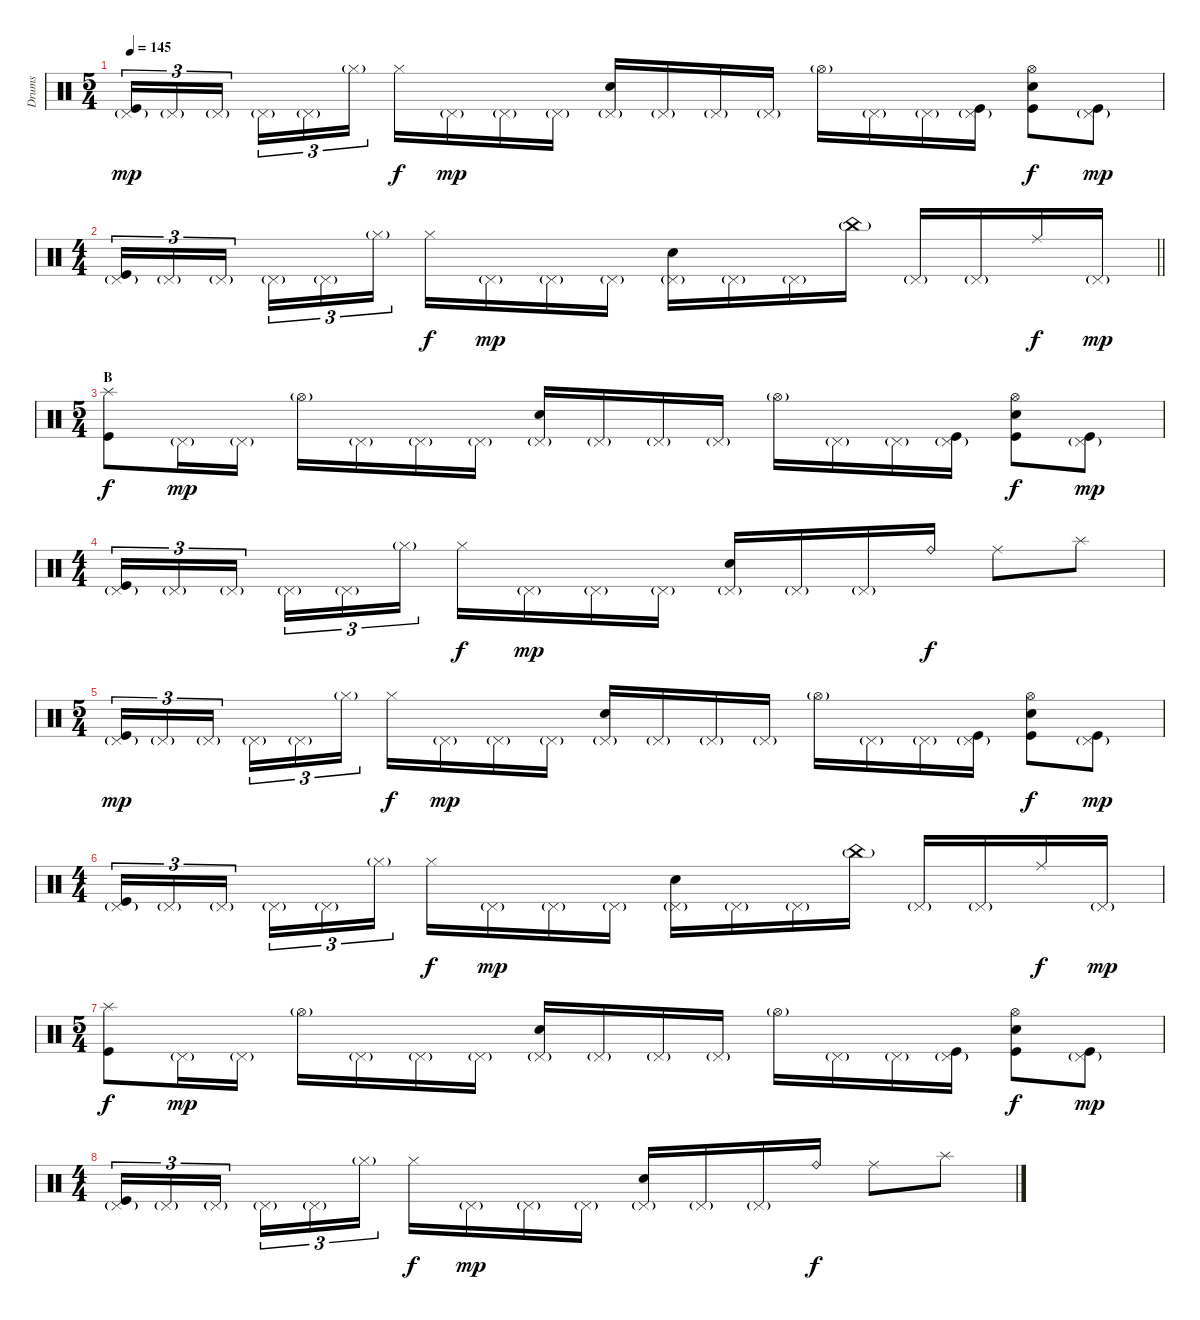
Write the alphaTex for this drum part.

\track ("Drums" "Drums") {instrument percussion}
\staff {score}
\articulation defaults
\ts (5 4)
\tempo 145
\clef neutral
\ks c
("Pedal Hi-Hat (hit)"{g} "Kick (hit)").16{tu (3 2) dy mp} "Pedal Hi-Hat (hit)"{g}.16{tu (3 2)} "Pedal Hi-Hat (hit)"{g}.16{tu (3 2)} "Pedal Hi-Hat (hit)"{g}.16{tu (3 2)} "Pedal Hi-Hat (hit)"{g}.16{tu (3 2)} "Hi-Hat (closed)"{g}.16{tu (3 2)} "Hi-Hat (closed)".16{dy f} "Pedal Hi-Hat (hit)"{g}.16{dy mp} "Pedal Hi-Hat (hit)"{g}.16 "Pedal Hi-Hat (hit)"{g}.16 ("Pedal Hi-Hat (hit)"{g} "Electric Snare (hit)").16 "Pedal Hi-Hat (hit)"{g}.16 "Pedal Hi-Hat (hit)"{g}.16 "Pedal Hi-Hat (hit)"{g}.16 "Hi-Hat (open)"{g}.16 "Pedal Hi-Hat (hit)"{g}.16 "Pedal Hi-Hat (hit)"{g}.16 ("Pedal Hi-Hat (hit)"{g} "Kick (hit)").16 ("Hi-Hat (open)" "Electric Snare (hit)" "Kick (hit)").8{dy f} ("Pedal Hi-Hat (hit)"{g} "Kick (hit)").8{dy mp} |
\ts (4 4)
\barLineRight lightlight
("Pedal Hi-Hat (hit)"{g} "Kick (hit)").16{tu (3 2)} "Pedal Hi-Hat (hit)"{g}.16{tu (3 2)} "Pedal Hi-Hat (hit)"{g}.16{tu (3 2)} "Pedal Hi-Hat (hit)"{g}.16{tu (3 2)} "Pedal Hi-Hat (hit)"{g}.16{tu (3 2)} "Hi-Hat (closed)"{g}.16{tu (3 2)} "Hi-Hat (closed)".16{dy f} "Pedal Hi-Hat (hit)"{g}.16{dy mp} "Pedal Hi-Hat (hit)"{g}.16 "Pedal Hi-Hat (hit)"{g}.16 ("Pedal Hi-Hat (hit)"{g} "Electric Snare (hit)").16 "Pedal Hi-Hat (hit)"{g}.16 "Pedal Hi-Hat (hit)"{g}.16 "China (hit)"{g}.16 "Pedal Hi-Hat (hit)"{g}.16 "Pedal Hi-Hat (hit)"{g}.16 "Ride (middle)".16{dy f} "Pedal Hi-Hat (hit)"{g}.16{dy mp} |
\ts (5 4)
\section ("" "B")
("Splash (hit)" "Kick (hit)").8{dy f} "Pedal Hi-Hat (hit)"{g}.16{dy mp} "Pedal Hi-Hat (hit)"{g}.16 "Hi-Hat (open)"{g}.16 "Pedal Hi-Hat (hit)"{g}.16 "Pedal Hi-Hat (hit)"{g}.16 "Pedal Hi-Hat (hit)"{g}.16 ("Pedal Hi-Hat (hit)"{g} "Electric Snare (hit)").16 "Pedal Hi-Hat (hit)"{g}.16 "Pedal Hi-Hat (hit)"{g}.16 "Pedal Hi-Hat (hit)"{g}.16 "Hi-Hat (open)"{g}.16 "Pedal Hi-Hat (hit)"{g}.16 "Pedal Hi-Hat (hit)"{g}.16 ("Pedal Hi-Hat (hit)"{g} "Kick (hit)").16 ("Hi-Hat (open)" "Electric Snare (hit)" "Kick (hit)").8{dy f} ("Pedal Hi-Hat (hit)"{g} "Kick (hit)").8{dy mp} |
\ts (4 4)
("Pedal Hi-Hat (hit)"{g} "Kick (hit)").16{tu (3 2)} "Pedal Hi-Hat (hit)"{g}.16{tu (3 2)} "Pedal Hi-Hat (hit)"{g}.16{tu (3 2)} "Pedal Hi-Hat (hit)"{g}.16{tu (3 2)} "Pedal Hi-Hat (hit)"{g}.16{tu (3 2)} "Hi-Hat (closed)"{g}.16{tu (3 2)} "Hi-Hat (closed)".16{dy f} "Pedal Hi-Hat (hit)"{g}.16{dy mp} "Pedal Hi-Hat (hit)"{g}.16 "Pedal Hi-Hat (hit)"{g}.16 ("Pedal Hi-Hat (hit)"{g} "Electric Snare (hit)").16 "Pedal Hi-Hat (hit)"{g}.16 "Pedal Hi-Hat (hit)"{g}.16 "Ride (bell)".16{dy f} "Ride (middle)".8 "Splash (hit)".8 |
\ts (5 4)
("Pedal Hi-Hat (hit)"{g} "Kick (hit)").16{tu (3 2) dy mp} "Pedal Hi-Hat (hit)"{g}.16{tu (3 2)} "Pedal Hi-Hat (hit)"{g}.16{tu (3 2)} "Pedal Hi-Hat (hit)"{g}.16{tu (3 2)} "Pedal Hi-Hat (hit)"{g}.16{tu (3 2)} "Hi-Hat (closed)"{g}.16{tu (3 2)} "Hi-Hat (closed)".16{dy f} "Pedal Hi-Hat (hit)"{g}.16{dy mp} "Pedal Hi-Hat (hit)"{g}.16 "Pedal Hi-Hat (hit)"{g}.16 ("Pedal Hi-Hat (hit)"{g} "Electric Snare (hit)").16 "Pedal Hi-Hat (hit)"{g}.16 "Pedal Hi-Hat (hit)"{g}.16 "Pedal Hi-Hat (hit)"{g}.16 "Hi-Hat (open)"{g}.16 "Pedal Hi-Hat (hit)"{g}.16 "Pedal Hi-Hat (hit)"{g}.16 ("Pedal Hi-Hat (hit)"{g} "Kick (hit)").16 ("Hi-Hat (open)" "Electric Snare (hit)" "Kick (hit)").8{dy f} ("Pedal Hi-Hat (hit)"{g} "Kick (hit)").8{dy mp} |
\ts (4 4)
("Pedal Hi-Hat (hit)"{g} "Kick (hit)").16{tu (3 2)} "Pedal Hi-Hat (hit)"{g}.16{tu (3 2)} "Pedal Hi-Hat (hit)"{g}.16{tu (3 2)} "Pedal Hi-Hat (hit)"{g}.16{tu (3 2)} "Pedal Hi-Hat (hit)"{g}.16{tu (3 2)} "Hi-Hat (closed)"{g}.16{tu (3 2)} "Hi-Hat (closed)".16{dy f} "Pedal Hi-Hat (hit)"{g}.16{dy mp} "Pedal Hi-Hat (hit)"{g}.16 "Pedal Hi-Hat (hit)"{g}.16 ("Pedal Hi-Hat (hit)"{g} "Electric Snare (hit)").16 "Pedal Hi-Hat (hit)"{g}.16 "Pedal Hi-Hat (hit)"{g}.16 "China (hit)"{g}.16 "Pedal Hi-Hat (hit)"{g}.16 "Pedal Hi-Hat (hit)"{g}.16 "Ride (middle)".16{dy f} "Pedal Hi-Hat (hit)"{g}.16{dy mp} |
\ts (5 4)
("Splash (hit)" "Kick (hit)").8{dy f} "Pedal Hi-Hat (hit)"{g}.16{dy mp} "Pedal Hi-Hat (hit)"{g}.16 "Hi-Hat (open)"{g}.16 "Pedal Hi-Hat (hit)"{g}.16 "Pedal Hi-Hat (hit)"{g}.16 "Pedal Hi-Hat (hit)"{g}.16 ("Pedal Hi-Hat (hit)"{g} "Electric Snare (hit)").16 "Pedal Hi-Hat (hit)"{g}.16 "Pedal Hi-Hat (hit)"{g}.16 "Pedal Hi-Hat (hit)"{g}.16 "Hi-Hat (open)"{g}.16 "Pedal Hi-Hat (hit)"{g}.16 "Pedal Hi-Hat (hit)"{g}.16 ("Pedal Hi-Hat (hit)"{g} "Kick (hit)").16 ("Hi-Hat (open)" "Electric Snare (hit)" "Kick (hit)").8{dy f} ("Pedal Hi-Hat (hit)"{g} "Kick (hit)").8{dy mp} |
\ts (4 4)
("Pedal Hi-Hat (hit)"{g} "Kick (hit)").16{tu (3 2)} "Pedal Hi-Hat (hit)"{g}.16{tu (3 2)} "Pedal Hi-Hat (hit)"{g}.16{tu (3 2)} "Pedal Hi-Hat (hit)"{g}.16{tu (3 2)} "Pedal Hi-Hat (hit)"{g}.16{tu (3 2)} "Hi-Hat (closed)"{g}.16{tu (3 2)} "Hi-Hat (closed)".16{dy f} "Pedal Hi-Hat (hit)"{g}.16{dy mp} "Pedal Hi-Hat (hit)"{g}.16 "Pedal Hi-Hat (hit)"{g}.16 ("Pedal Hi-Hat (hit)"{g} "Electric Snare (hit)").16 "Pedal Hi-Hat (hit)"{g}.16 "Pedal Hi-Hat (hit)"{g}.16 "Ride (bell)".16{dy f} "Ride (middle)".8 "Splash (hit)".8
